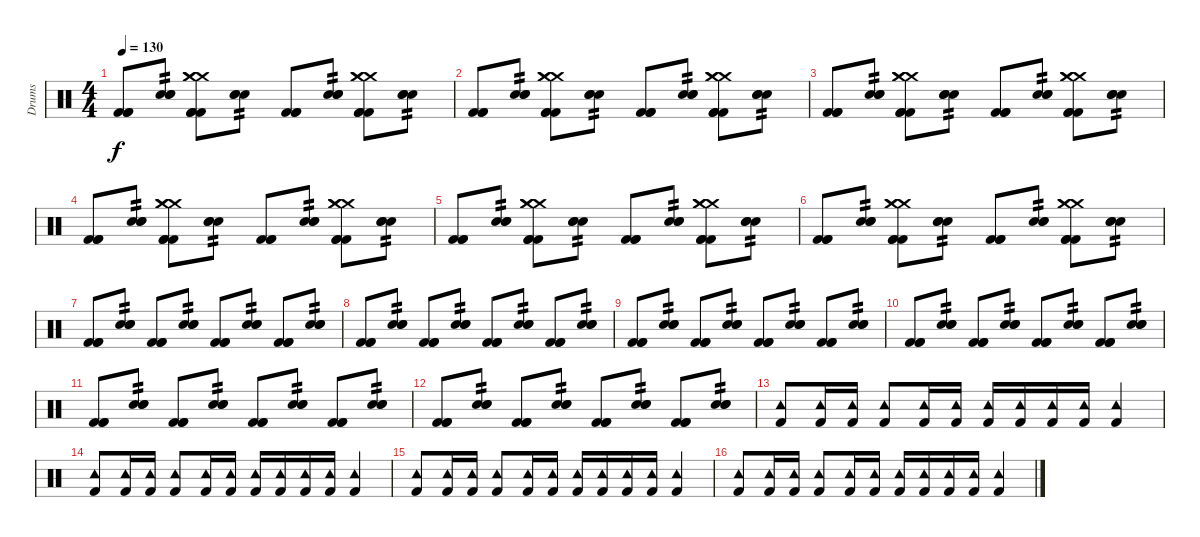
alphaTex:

\track ("Drums" "Drums") {instrument percussion}
\staff {score}
\articulation defaults
\ts (4 4)
\tempo 130
\clef neutral
\ks c
("Kick (hit) 2" "Kick (hit) 2" "Kick (hit) 2").8{dy f} ("Electric Snare (hit)" "Electric Snare (hit)" "Electric Snare (hit)").8{tp 2} ("Kick (hit) 2" "Kick (hit) 2" "Kick (hit) 2" "Crash medium (hit)" "Crash medium (hit)" "Crash medium (hit)").8 ("Electric Snare (hit)" "Electric Snare (hit)" "Electric Snare (hit)").8{tp 2} ("Kick (hit) 2" "Kick (hit) 2" "Kick (hit) 2").8 ("Electric Snare (hit)" "Electric Snare (hit)" "Electric Snare (hit)").8{tp 2} ("Kick (hit) 2" "Kick (hit) 2" "Kick (hit) 2" "Crash medium (hit)" "Crash medium (hit)" "Crash medium (hit)").8 ("Electric Snare (hit)" "Electric Snare (hit)" "Electric Snare (hit)").8{tp 2} |
("Kick (hit) 2" "Kick (hit) 2" "Kick (hit) 2").8 ("Electric Snare (hit)" "Electric Snare (hit)" "Electric Snare (hit)").8{tp 2} ("Kick (hit) 2" "Kick (hit) 2" "Kick (hit) 2" "Crash medium (hit)" "Crash medium (hit)" "Crash medium (hit)").8 ("Electric Snare (hit)" "Electric Snare (hit)" "Electric Snare (hit)").8{tp 2} ("Kick (hit) 2" "Kick (hit) 2" "Kick (hit) 2").8 ("Electric Snare (hit)" "Electric Snare (hit)" "Electric Snare (hit)").8{tp 2} ("Kick (hit) 2" "Kick (hit) 2" "Kick (hit) 2" "Crash medium (hit)" "Crash medium (hit)" "Crash medium (hit)").8 ("Electric Snare (hit)" "Electric Snare (hit)" "Electric Snare (hit)").8{tp 2} |
("Kick (hit) 2" "Kick (hit) 2" "Kick (hit) 2").8 ("Electric Snare (hit)" "Electric Snare (hit)" "Electric Snare (hit)").8{tp 2} ("Kick (hit) 2" "Kick (hit) 2" "Kick (hit) 2" "Crash medium (hit)" "Crash medium (hit)" "Crash medium (hit)").8 ("Electric Snare (hit)" "Electric Snare (hit)" "Electric Snare (hit)").8{tp 2} ("Kick (hit) 2" "Kick (hit) 2" "Kick (hit) 2").8 ("Electric Snare (hit)" "Electric Snare (hit)" "Electric Snare (hit)").8{tp 2} ("Kick (hit) 2" "Kick (hit) 2" "Kick (hit) 2" "Crash medium (hit)" "Crash medium (hit)" "Crash medium (hit)").8 ("Electric Snare (hit)" "Electric Snare (hit)" "Electric Snare (hit)").8{tp 2} |
("Kick (hit) 2" "Kick (hit) 2" "Kick (hit) 2").8 ("Electric Snare (hit)" "Electric Snare (hit)" "Electric Snare (hit)").8{tp 2} ("Kick (hit) 2" "Kick (hit) 2" "Kick (hit) 2" "Crash medium (hit)" "Crash medium (hit)" "Crash medium (hit)").8 ("Electric Snare (hit)" "Electric Snare (hit)" "Electric Snare (hit)").8{tp 2} ("Kick (hit) 2" "Kick (hit) 2" "Kick (hit) 2").8 ("Electric Snare (hit)" "Electric Snare (hit)" "Electric Snare (hit)").8{tp 2} ("Kick (hit) 2" "Kick (hit) 2" "Kick (hit) 2" "Crash medium (hit)" "Crash medium (hit)" "Crash medium (hit)").8 ("Electric Snare (hit)" "Electric Snare (hit)" "Electric Snare (hit)").8{tp 2} |
("Kick (hit) 2" "Kick (hit) 2" "Kick (hit) 2").8 ("Electric Snare (hit)" "Electric Snare (hit)" "Electric Snare (hit)").8{tp 2} ("Kick (hit) 2" "Kick (hit) 2" "Kick (hit) 2" "Crash medium (hit)" "Crash medium (hit)" "Crash medium (hit)").8 ("Electric Snare (hit)" "Electric Snare (hit)" "Electric Snare (hit)").8{tp 2} ("Kick (hit) 2" "Kick (hit) 2" "Kick (hit) 2").8 ("Electric Snare (hit)" "Electric Snare (hit)" "Electric Snare (hit)").8{tp 2} ("Kick (hit) 2" "Kick (hit) 2" "Kick (hit) 2" "Crash medium (hit)" "Crash medium (hit)" "Crash medium (hit)").8 ("Electric Snare (hit)" "Electric Snare (hit)" "Electric Snare (hit)").8{tp 2} |
("Kick (hit) 2" "Kick (hit) 2" "Kick (hit) 2").8 ("Electric Snare (hit)" "Electric Snare (hit)" "Electric Snare (hit)").8{tp 2} ("Kick (hit) 2" "Kick (hit) 2" "Kick (hit) 2" "Crash medium (hit)" "Crash medium (hit)" "Crash medium (hit)").8 ("Electric Snare (hit)" "Electric Snare (hit)" "Electric Snare (hit)").8{tp 2} ("Kick (hit) 2" "Kick (hit) 2" "Kick (hit) 2").8 ("Electric Snare (hit)" "Electric Snare (hit)" "Electric Snare (hit)").8{tp 2} ("Kick (hit) 2" "Kick (hit) 2" "Kick (hit) 2" "Crash medium (hit)" "Crash medium (hit)" "Crash medium (hit)").8 ("Electric Snare (hit)" "Electric Snare (hit)" "Electric Snare (hit)").8{tp 2} |
("Kick (hit) 2" "Kick (hit) 2" "Kick (hit) 2").8 ("Electric Snare (hit)" "Electric Snare (hit)" "Electric Snare (hit)").8{tp 2} ("Kick (hit) 2" "Kick (hit) 2" "Kick (hit) 2").8 ("Electric Snare (hit)" "Electric Snare (hit)" "Electric Snare (hit)").8{tp 2} ("Kick (hit) 2" "Kick (hit) 2" "Kick (hit) 2").8 ("Electric Snare (hit)" "Electric Snare (hit)" "Electric Snare (hit)").8{tp 2} ("Kick (hit) 2" "Kick (hit) 2" "Kick (hit) 2").8 ("Electric Snare (hit)" "Electric Snare (hit)" "Electric Snare (hit)").8{tp 2} |
("Kick (hit) 2" "Kick (hit) 2" "Kick (hit) 2").8 ("Electric Snare (hit)" "Electric Snare (hit)" "Electric Snare (hit)").8{tp 2} ("Kick (hit) 2" "Kick (hit) 2" "Kick (hit) 2").8 ("Electric Snare (hit)" "Electric Snare (hit)" "Electric Snare (hit)").8{tp 2} ("Kick (hit) 2" "Kick (hit) 2" "Kick (hit) 2").8 ("Electric Snare (hit)" "Electric Snare (hit)" "Electric Snare (hit)").8{tp 2} ("Kick (hit) 2" "Kick (hit) 2" "Kick (hit) 2").8 ("Electric Snare (hit)" "Electric Snare (hit)" "Electric Snare (hit)").8{tp 2} |
("Kick (hit) 2" "Kick (hit) 2" "Kick (hit) 2").8 ("Electric Snare (hit)" "Electric Snare (hit)" "Electric Snare (hit)").8{tp 2} ("Kick (hit) 2" "Kick (hit) 2" "Kick (hit) 2").8 ("Electric Snare (hit)" "Electric Snare (hit)" "Electric Snare (hit)").8{tp 2} ("Kick (hit) 2" "Kick (hit) 2" "Kick (hit) 2").8 ("Electric Snare (hit)" "Electric Snare (hit)" "Electric Snare (hit)").8{tp 2} ("Kick (hit) 2" "Kick (hit) 2" "Kick (hit) 2").8 ("Electric Snare (hit)" "Electric Snare (hit)" "Electric Snare (hit)").8{tp 2} |
("Kick (hit) 2" "Kick (hit) 2" "Kick (hit) 2").8 ("Electric Snare (hit)" "Electric Snare (hit)" "Electric Snare (hit)").8{tp 2} ("Kick (hit) 2" "Kick (hit) 2" "Kick (hit) 2").8 ("Electric Snare (hit)" "Electric Snare (hit)" "Electric Snare (hit)").8{tp 2} ("Kick (hit) 2" "Kick (hit) 2" "Kick (hit) 2").8 ("Electric Snare (hit)" "Electric Snare (hit)" "Electric Snare (hit)").8{tp 2} ("Kick (hit) 2" "Kick (hit) 2" "Kick (hit) 2").8 ("Electric Snare (hit)" "Electric Snare (hit)" "Electric Snare (hit)").8{tp 2} |
("Kick (hit) 2" "Kick (hit) 2" "Kick (hit) 2").8 ("Electric Snare (hit)" "Electric Snare (hit)" "Electric Snare (hit)").8{tp 2} ("Kick (hit) 2" "Kick (hit) 2" "Kick (hit) 2").8 ("Electric Snare (hit)" "Electric Snare (hit)" "Electric Snare (hit)").8{tp 2} ("Kick (hit) 2" "Kick (hit) 2" "Kick (hit) 2").8 ("Electric Snare (hit)" "Electric Snare (hit)" "Electric Snare (hit)").8{tp 2} ("Kick (hit) 2" "Kick (hit) 2" "Kick (hit) 2").8 ("Electric Snare (hit)" "Electric Snare (hit)" "Electric Snare (hit)").8{tp 2} |
("Kick (hit) 2" "Kick (hit) 2" "Kick (hit) 2").8 ("Electric Snare (hit)" "Electric Snare (hit)" "Electric Snare (hit)").8{tp 2} ("Kick (hit) 2" "Kick (hit) 2" "Kick (hit) 2").8 ("Electric Snare (hit)" "Electric Snare (hit)" "Electric Snare (hit)").8{tp 2} ("Kick (hit) 2" "Kick (hit) 2" "Kick (hit) 2").8 ("Electric Snare (hit)" "Electric Snare (hit)" "Electric Snare (hit)").8{tp 2} ("Kick (hit) 2" "Kick (hit) 2" "Kick (hit) 2").8 ("Electric Snare (hit)" "Electric Snare (hit)" "Electric Snare (hit)").8{tp 2} |
("Tambourine (hit)" "Kick (hit) 2").8 ("Tambourine (hit)" "Kick (hit) 2").16 ("Tambourine (hit)" "Kick (hit) 2").16 ("Tambourine (hit)" "Kick (hit) 2").8 ("Tambourine (hit)" "Kick (hit) 2").16 ("Tambourine (hit)" "Kick (hit) 2").16 ("Tambourine (hit)" "Kick (hit) 2").16 ("Tambourine (hit)" "Kick (hit) 2").16 ("Tambourine (hit)" "Kick (hit) 2").16 ("Tambourine (hit)" "Kick (hit) 2").16 ("Tambourine (hit)" "Kick (hit) 2").4 |
("Tambourine (hit)" "Kick (hit) 2").8 ("Tambourine (hit)" "Kick (hit) 2").16 ("Tambourine (hit)" "Kick (hit) 2").16 ("Tambourine (hit)" "Kick (hit) 2").8 ("Tambourine (hit)" "Kick (hit) 2").16 ("Tambourine (hit)" "Kick (hit) 2").16 ("Tambourine (hit)" "Kick (hit) 2").16 ("Tambourine (hit)" "Kick (hit) 2").16 ("Tambourine (hit)" "Kick (hit) 2").16 ("Tambourine (hit)" "Kick (hit) 2").16 ("Tambourine (hit)" "Kick (hit) 2").4 |
("Tambourine (hit)" "Kick (hit) 2").8 ("Tambourine (hit)" "Kick (hit) 2").16 ("Tambourine (hit)" "Kick (hit) 2").16 ("Tambourine (hit)" "Kick (hit) 2").8 ("Tambourine (hit)" "Kick (hit) 2").16 ("Tambourine (hit)" "Kick (hit) 2").16 ("Tambourine (hit)" "Kick (hit) 2").16 ("Tambourine (hit)" "Kick (hit) 2").16 ("Tambourine (hit)" "Kick (hit) 2").16 ("Tambourine (hit)" "Kick (hit) 2").16 ("Tambourine (hit)" "Kick (hit) 2").4 |
("Tambourine (hit)" "Kick (hit) 2").8 ("Tambourine (hit)" "Kick (hit) 2").16 ("Tambourine (hit)" "Kick (hit) 2").16 ("Tambourine (hit)" "Kick (hit) 2").8 ("Tambourine (hit)" "Kick (hit) 2").16 ("Tambourine (hit)" "Kick (hit) 2").16 ("Tambourine (hit)" "Kick (hit) 2").16 ("Tambourine (hit)" "Kick (hit) 2").16 ("Tambourine (hit)" "Kick (hit) 2").16 ("Tambourine (hit)" "Kick (hit) 2").16 ("Tambourine (hit)" "Kick (hit) 2").4
